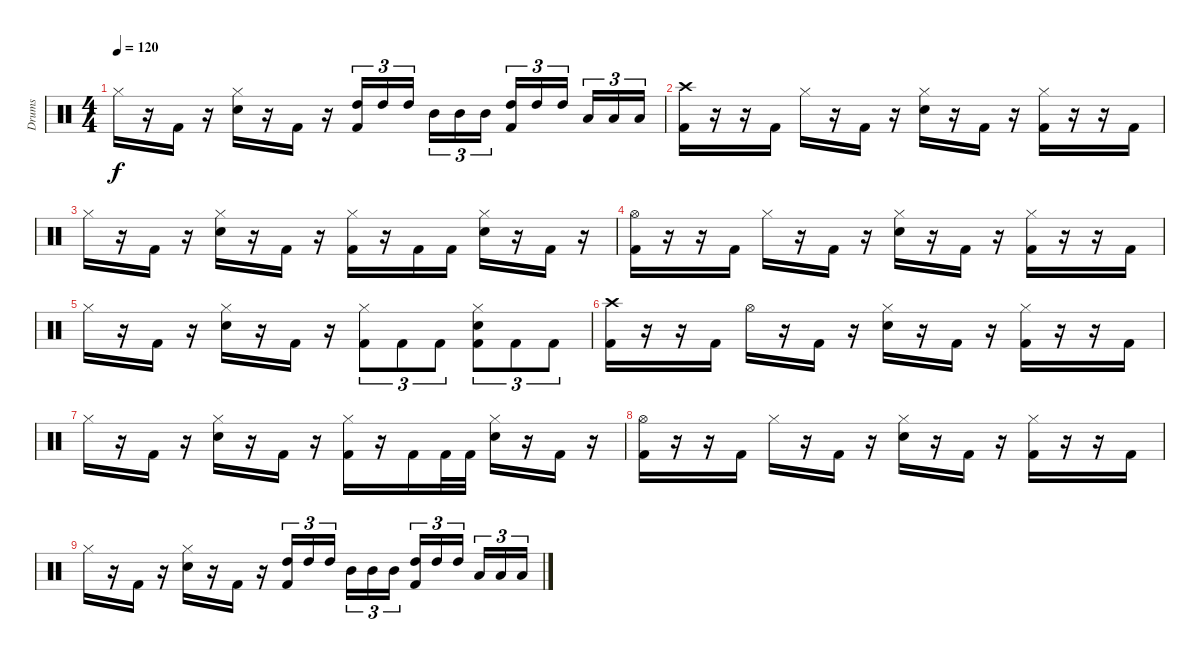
\track ("Drums" "Drums") {instrument percussion}
\staff {score}
\articulation defaults
\ts (4 4)
\tempo 120
\clef neutral
\ks c "Hi-Hat (closed)".16{dy f}
r.16 "Kick (hit) 2".16 r.16 ("Hi-Hat (closed)" "Snare (hit) 2").16 r.16 "Kick (hit) 2".16 r.16 ("High Tom (hit)" "Kick (hit) 2").16{tu (3 2)} "High Tom (hit)".16{tu (3 2)} "High Tom (hit)".16{tu (3 2) beam splitsecondary} "Mid Tom (hit)".16{tu (3 2)} "Mid Tom (hit)".16{tu (3 2)} "Mid Tom (hit)".16{tu (3 2)} ("High Tom (hit)" "Kick (hit) 2").16{tu (3 2)} "High Tom (hit)".16{tu (3 2)} "High Tom (hit)".16{tu (3 2) beam splitsecondary} "Low Tom (hit)".16{tu (3 2)} "Low Tom (hit)".16{tu (3 2)} "Low Tom (hit)".16{tu (3 2)} |
("Crash high (hit)" "Kick (hit) 2").16 r.16 r.16 "Kick (hit) 2".16 "Hi-Hat (closed)".16 r.16 "Kick (hit) 2".16 r.16 ("Hi-Hat (closed)" "Snare (hit) 2").16 r.16 "Kick (hit) 2".16 r.16 ("Hi-Hat (closed)" "Kick (hit) 2").16 r.16 r.16 "Kick (hit) 2".16 |
"Hi-Hat (closed)".16 r.16 "Kick (hit) 2".16 r.16 ("Hi-Hat (closed)" "Snare (hit) 2").16 r.16 "Kick (hit) 2".16 r.16 ("Hi-Hat (closed)" "Kick (hit) 2").16 r.16 "Kick (hit) 2".16 "Kick (hit) 2".16 ("Hi-Hat (closed)" "Snare (hit) 2").16 r.16 "Kick (hit) 2".16 r.16 |
("Hi-Hat (open)" "Kick (hit) 2").16 r.16 r.16 "Kick (hit) 2".16 "Hi-Hat (closed)".16 r.16 "Kick (hit) 2".16 r.16 ("Hi-Hat (closed)" "Snare (hit) 2").16 r.16 "Kick (hit) 2".16 r.16 ("Hi-Hat (closed)" "Kick (hit) 2").16 r.16 r.16 "Kick (hit) 2".16 |
"Hi-Hat (closed)".16 r.16 "Kick (hit) 2".16 r.16 ("Hi-Hat (closed)" "Snare (hit) 2").16 r.16 "Kick (hit) 2".16 r.16 ("Hi-Hat (closed)" "Kick (hit) 2").8{tu (3 2)} "Kick (hit) 2".8{tu (3 2)} "Kick (hit) 2".8{tu (3 2)} ("Hi-Hat (closed)" "Snare (hit) 2" "Kick (hit) 2").8{tu (3 2)} "Kick (hit) 2".8{tu (3 2)} "Kick (hit) 2".8{tu (3 2)} |
("Crash high (hit)" "Kick (hit) 2").16 r.16 r.16 "Kick (hit) 2".16 "Hi-Hat (open)".16 r.16 "Kick (hit) 2".16 r.16 ("Hi-Hat (closed)" "Snare (hit) 2").16 r.16 "Kick (hit) 2".16 r.16 ("Hi-Hat (closed)" "Kick (hit) 2").16 r.16 r.16 "Kick (hit) 2".16 |
"Hi-Hat (closed)".16 r.16 "Kick (hit) 2".16 r.16 ("Hi-Hat (closed)" "Snare (hit) 2").16 r.16 "Kick (hit) 2".16 r.16 ("Hi-Hat (closed)" "Kick (hit) 2").16 r.16 "Kick (hit) 2".16 "Kick (hit) 2".32 "Kick (hit) 2".32 ("Hi-Hat (closed)" "Snare (hit) 2").16 r.16 "Kick (hit) 2".16 r.16 |
("Hi-Hat (open)" "Kick (hit) 2").16 r.16 r.16 "Kick (hit) 2".16 "Hi-Hat (closed)".16 r.16 "Kick (hit) 2".16 r.16 ("Hi-Hat (closed)" "Snare (hit) 2").16 r.16 "Kick (hit) 2".16 r.16 ("Hi-Hat (closed)" "Kick (hit) 2").16 r.16 r.16 "Kick (hit) 2".16 |
"Hi-Hat (closed)".16 r.16 "Kick (hit) 2".16 r.16 ("Hi-Hat (closed)" "Snare (hit) 2").16 r.16 "Kick (hit) 2".16 r.16 ("High Tom (hit)" "Kick (hit) 2").16{tu (3 2)} "High Tom (hit)".16{tu (3 2)} "High Tom (hit)".16{tu (3 2) beam splitsecondary} "Mid Tom (hit)".16{tu (3 2)} "Mid Tom (hit)".16{tu (3 2)} "Mid Tom (hit)".16{tu (3 2)} ("High Tom (hit)" "Kick (hit) 2").16{tu (3 2)} "High Tom (hit)".16{tu (3 2)} "High Tom (hit)".16{tu (3 2) beam splitsecondary} "Low Tom (hit)".16{tu (3 2)} "Low Tom (hit)".16{tu (3 2)} "Low Tom (hit)".16{tu (3 2)}
